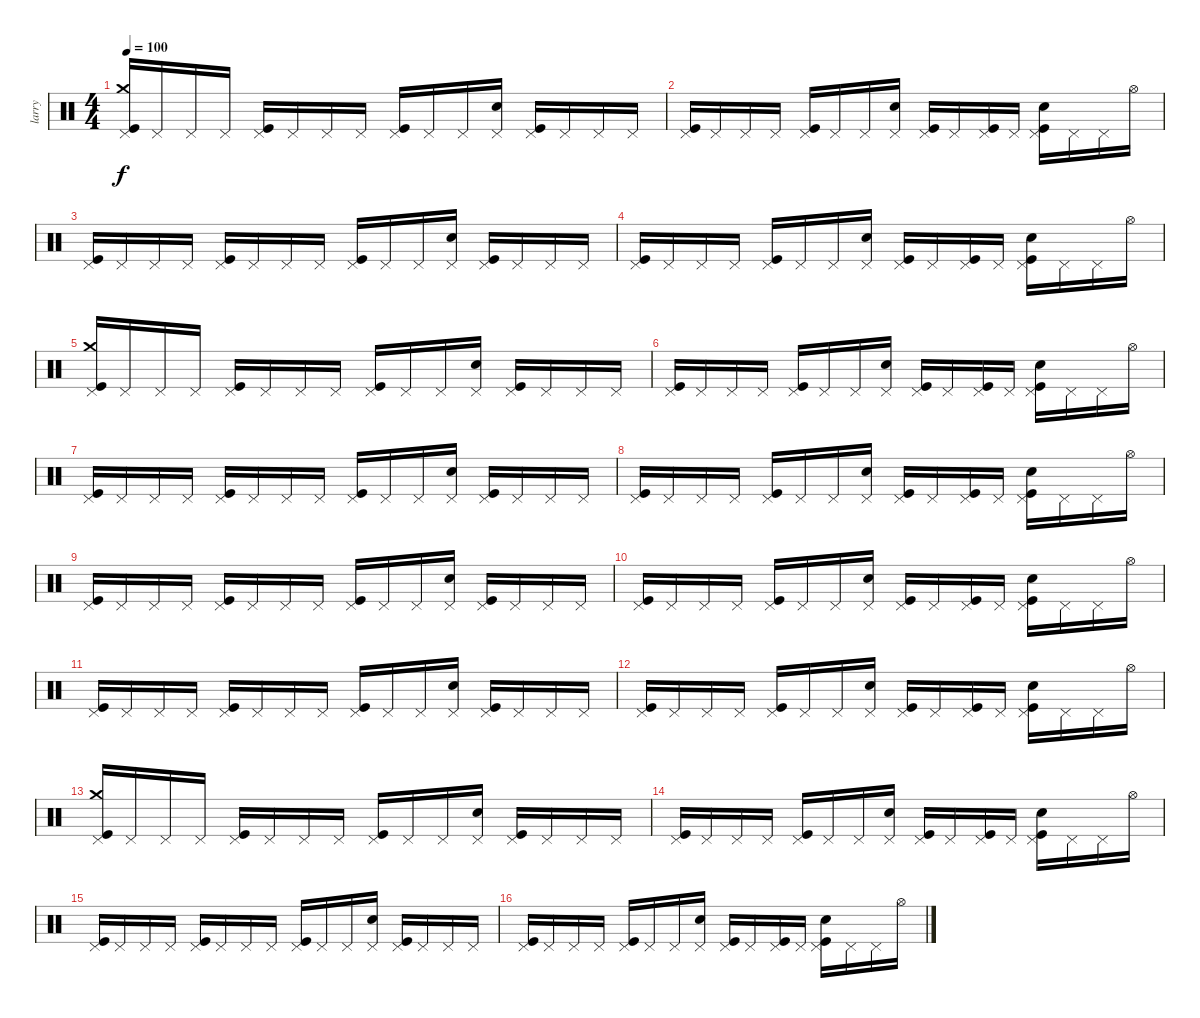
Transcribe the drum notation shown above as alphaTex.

\track ("larry" "larry") {instrument percussion}
\staff {score}
\articulation defaults
\ts (4 4)
\tempo 100
\clef neutral
\ks c
("Pedal Hi-Hat (hit)" "Crash medium (hit)" "Kick (hit)").16{dy f} "Pedal Hi-Hat (hit)".16 "Pedal Hi-Hat (hit)".16 "Pedal Hi-Hat (hit)".16 ("Pedal Hi-Hat (hit)" "Kick (hit)").16 "Pedal Hi-Hat (hit)".16 "Pedal Hi-Hat (hit)".16 "Pedal Hi-Hat (hit)".16 ("Pedal Hi-Hat (hit)" "Kick (hit)").16 "Pedal Hi-Hat (hit)".16 "Pedal Hi-Hat (hit)".16 ("Pedal Hi-Hat (hit)" "Metronome (bell)").16 ("Pedal Hi-Hat (hit)" "Kick (hit)").16 "Pedal Hi-Hat (hit)".16 "Pedal Hi-Hat (hit)".16 "Pedal Hi-Hat (hit)".16 |
("Pedal Hi-Hat (hit)" "Kick (hit)").16 "Pedal Hi-Hat (hit)".16 "Pedal Hi-Hat (hit)".16 "Pedal Hi-Hat (hit)".16 ("Pedal Hi-Hat (hit)" "Kick (hit)").16 "Pedal Hi-Hat (hit)".16 "Pedal Hi-Hat (hit)".16 ("Pedal Hi-Hat (hit)" "Metronome (bell)").16 ("Pedal Hi-Hat (hit)" "Kick (hit)").16 "Pedal Hi-Hat (hit)".16 ("Pedal Hi-Hat (hit)" "Kick (hit)").16 "Pedal Hi-Hat (hit)".16 ("Pedal Hi-Hat (hit)" "Kick (hit)" "Metronome (bell)").16 "Pedal Hi-Hat (hit)".16 "Pedal Hi-Hat (hit)".16 "Hi-Hat (open)".16 |
("Pedal Hi-Hat (hit)" "Kick (hit)").16 "Pedal Hi-Hat (hit)".16 "Pedal Hi-Hat (hit)".16 "Pedal Hi-Hat (hit)".16 ("Pedal Hi-Hat (hit)" "Kick (hit)").16 "Pedal Hi-Hat (hit)".16 "Pedal Hi-Hat (hit)".16 "Pedal Hi-Hat (hit)".16 ("Pedal Hi-Hat (hit)" "Kick (hit)").16 "Pedal Hi-Hat (hit)".16 "Pedal Hi-Hat (hit)".16 ("Pedal Hi-Hat (hit)" "Metronome (bell)").16 ("Pedal Hi-Hat (hit)" "Kick (hit)").16 "Pedal Hi-Hat (hit)".16 "Pedal Hi-Hat (hit)".16 "Pedal Hi-Hat (hit)".16 |
("Pedal Hi-Hat (hit)" "Kick (hit)").16 "Pedal Hi-Hat (hit)".16 "Pedal Hi-Hat (hit)".16 "Pedal Hi-Hat (hit)".16 ("Pedal Hi-Hat (hit)" "Kick (hit)").16 "Pedal Hi-Hat (hit)".16 "Pedal Hi-Hat (hit)".16 ("Pedal Hi-Hat (hit)" "Metronome (bell)").16 ("Pedal Hi-Hat (hit)" "Kick (hit)").16 "Pedal Hi-Hat (hit)".16 ("Pedal Hi-Hat (hit)" "Kick (hit)").16 "Pedal Hi-Hat (hit)".16 ("Pedal Hi-Hat (hit)" "Kick (hit)" "Metronome (bell)").16 "Pedal Hi-Hat (hit)".16 "Pedal Hi-Hat (hit)".16 "Hi-Hat (open)".16 |
("Pedal Hi-Hat (hit)" "Crash medium (hit)" "Kick (hit)").16 "Pedal Hi-Hat (hit)".16 "Pedal Hi-Hat (hit)".16 "Pedal Hi-Hat (hit)".16 ("Pedal Hi-Hat (hit)" "Kick (hit)").16 "Pedal Hi-Hat (hit)".16 "Pedal Hi-Hat (hit)".16 "Pedal Hi-Hat (hit)".16 ("Pedal Hi-Hat (hit)" "Kick (hit)").16 "Pedal Hi-Hat (hit)".16 "Pedal Hi-Hat (hit)".16 ("Pedal Hi-Hat (hit)" "Metronome (bell)").16 ("Pedal Hi-Hat (hit)" "Kick (hit)").16 "Pedal Hi-Hat (hit)".16 "Pedal Hi-Hat (hit)".16 "Pedal Hi-Hat (hit)".16 |
("Pedal Hi-Hat (hit)" "Kick (hit)").16 "Pedal Hi-Hat (hit)".16 "Pedal Hi-Hat (hit)".16 "Pedal Hi-Hat (hit)".16 ("Pedal Hi-Hat (hit)" "Kick (hit)").16 "Pedal Hi-Hat (hit)".16 "Pedal Hi-Hat (hit)".16 ("Pedal Hi-Hat (hit)" "Metronome (bell)").16 ("Pedal Hi-Hat (hit)" "Kick (hit)").16 "Pedal Hi-Hat (hit)".16 ("Pedal Hi-Hat (hit)" "Kick (hit)").16 "Pedal Hi-Hat (hit)".16 ("Pedal Hi-Hat (hit)" "Kick (hit)" "Metronome (bell)").16 "Pedal Hi-Hat (hit)".16 "Pedal Hi-Hat (hit)".16 "Hi-Hat (open)".16 |
("Pedal Hi-Hat (hit)" "Kick (hit)").16 "Pedal Hi-Hat (hit)".16 "Pedal Hi-Hat (hit)".16 "Pedal Hi-Hat (hit)".16 ("Pedal Hi-Hat (hit)" "Kick (hit)").16 "Pedal Hi-Hat (hit)".16 "Pedal Hi-Hat (hit)".16 "Pedal Hi-Hat (hit)".16 ("Pedal Hi-Hat (hit)" "Kick (hit)").16 "Pedal Hi-Hat (hit)".16 "Pedal Hi-Hat (hit)".16 ("Pedal Hi-Hat (hit)" "Metronome (bell)").16 ("Pedal Hi-Hat (hit)" "Kick (hit)").16 "Pedal Hi-Hat (hit)".16 "Pedal Hi-Hat (hit)".16 "Pedal Hi-Hat (hit)".16 |
("Pedal Hi-Hat (hit)" "Kick (hit)").16 "Pedal Hi-Hat (hit)".16 "Pedal Hi-Hat (hit)".16 "Pedal Hi-Hat (hit)".16 ("Pedal Hi-Hat (hit)" "Kick (hit)").16 "Pedal Hi-Hat (hit)".16 "Pedal Hi-Hat (hit)".16 ("Pedal Hi-Hat (hit)" "Metronome (bell)").16 ("Pedal Hi-Hat (hit)" "Kick (hit)").16 "Pedal Hi-Hat (hit)".16 ("Pedal Hi-Hat (hit)" "Kick (hit)").16 "Pedal Hi-Hat (hit)".16 ("Pedal Hi-Hat (hit)" "Kick (hit)" "Metronome (bell)").16 "Pedal Hi-Hat (hit)".16 "Pedal Hi-Hat (hit)".16 "Hi-Hat (open)".16 |
("Pedal Hi-Hat (hit)" "Kick (hit)").16 "Pedal Hi-Hat (hit)".16 "Pedal Hi-Hat (hit)".16 "Pedal Hi-Hat (hit)".16 ("Pedal Hi-Hat (hit)" "Kick (hit)").16 "Pedal Hi-Hat (hit)".16 "Pedal Hi-Hat (hit)".16 "Pedal Hi-Hat (hit)".16 ("Pedal Hi-Hat (hit)" "Kick (hit)").16 "Pedal Hi-Hat (hit)".16 "Pedal Hi-Hat (hit)".16 ("Pedal Hi-Hat (hit)" "Metronome (bell)").16 ("Pedal Hi-Hat (hit)" "Kick (hit)").16 "Pedal Hi-Hat (hit)".16 "Pedal Hi-Hat (hit)".16 "Pedal Hi-Hat (hit)".16 |
("Pedal Hi-Hat (hit)" "Kick (hit)").16 "Pedal Hi-Hat (hit)".16 "Pedal Hi-Hat (hit)".16 "Pedal Hi-Hat (hit)".16 ("Pedal Hi-Hat (hit)" "Kick (hit)").16 "Pedal Hi-Hat (hit)".16 "Pedal Hi-Hat (hit)".16 ("Pedal Hi-Hat (hit)" "Metronome (bell)").16 ("Pedal Hi-Hat (hit)" "Kick (hit)").16 "Pedal Hi-Hat (hit)".16 ("Pedal Hi-Hat (hit)" "Kick (hit)").16 "Pedal Hi-Hat (hit)".16 ("Pedal Hi-Hat (hit)" "Kick (hit)" "Metronome (bell)").16 "Pedal Hi-Hat (hit)".16 "Pedal Hi-Hat (hit)".16 "Hi-Hat (open)".16 |
("Pedal Hi-Hat (hit)" "Kick (hit)").16 "Pedal Hi-Hat (hit)".16 "Pedal Hi-Hat (hit)".16 "Pedal Hi-Hat (hit)".16 ("Pedal Hi-Hat (hit)" "Kick (hit)").16 "Pedal Hi-Hat (hit)".16 "Pedal Hi-Hat (hit)".16 "Pedal Hi-Hat (hit)".16 ("Pedal Hi-Hat (hit)" "Kick (hit)").16 "Pedal Hi-Hat (hit)".16 "Pedal Hi-Hat (hit)".16 ("Pedal Hi-Hat (hit)" "Metronome (bell)").16 ("Pedal Hi-Hat (hit)" "Kick (hit)").16 "Pedal Hi-Hat (hit)".16 "Pedal Hi-Hat (hit)".16 "Pedal Hi-Hat (hit)".16 |
("Pedal Hi-Hat (hit)" "Kick (hit)").16 "Pedal Hi-Hat (hit)".16 "Pedal Hi-Hat (hit)".16 "Pedal Hi-Hat (hit)".16 ("Pedal Hi-Hat (hit)" "Kick (hit)").16 "Pedal Hi-Hat (hit)".16 "Pedal Hi-Hat (hit)".16 ("Pedal Hi-Hat (hit)" "Metronome (bell)").16 ("Pedal Hi-Hat (hit)" "Kick (hit)").16 "Pedal Hi-Hat (hit)".16 ("Pedal Hi-Hat (hit)" "Kick (hit)").16 "Pedal Hi-Hat (hit)".16 ("Pedal Hi-Hat (hit)" "Kick (hit)" "Metronome (bell)").16 "Pedal Hi-Hat (hit)".16 "Pedal Hi-Hat (hit)".16 "Hi-Hat (open)".16 |
("Pedal Hi-Hat (hit)" "Crash medium (hit)" "Kick (hit)").16 "Pedal Hi-Hat (hit)".16 "Pedal Hi-Hat (hit)".16 "Pedal Hi-Hat (hit)".16 ("Pedal Hi-Hat (hit)" "Kick (hit)").16 "Pedal Hi-Hat (hit)".16 "Pedal Hi-Hat (hit)".16 "Pedal Hi-Hat (hit)".16 ("Pedal Hi-Hat (hit)" "Kick (hit)").16 "Pedal Hi-Hat (hit)".16 "Pedal Hi-Hat (hit)".16 ("Pedal Hi-Hat (hit)" "Metronome (bell)").16 ("Pedal Hi-Hat (hit)" "Kick (hit)").16 "Pedal Hi-Hat (hit)".16 "Pedal Hi-Hat (hit)".16 "Pedal Hi-Hat (hit)".16 |
("Pedal Hi-Hat (hit)" "Kick (hit)").16 "Pedal Hi-Hat (hit)".16 "Pedal Hi-Hat (hit)".16 "Pedal Hi-Hat (hit)".16 ("Pedal Hi-Hat (hit)" "Kick (hit)").16 "Pedal Hi-Hat (hit)".16 "Pedal Hi-Hat (hit)".16 ("Pedal Hi-Hat (hit)" "Metronome (bell)").16 ("Pedal Hi-Hat (hit)" "Kick (hit)").16 "Pedal Hi-Hat (hit)".16 ("Pedal Hi-Hat (hit)" "Kick (hit)").16 "Pedal Hi-Hat (hit)".16 ("Pedal Hi-Hat (hit)" "Kick (hit)" "Metronome (bell)").16 "Pedal Hi-Hat (hit)".16 "Pedal Hi-Hat (hit)".16 "Hi-Hat (open)".16 |
("Pedal Hi-Hat (hit)" "Kick (hit)").16 "Pedal Hi-Hat (hit)".16 "Pedal Hi-Hat (hit)".16 "Pedal Hi-Hat (hit)".16 ("Pedal Hi-Hat (hit)" "Kick (hit)").16 "Pedal Hi-Hat (hit)".16 "Pedal Hi-Hat (hit)".16 "Pedal Hi-Hat (hit)".16 ("Pedal Hi-Hat (hit)" "Kick (hit)").16 "Pedal Hi-Hat (hit)".16 "Pedal Hi-Hat (hit)".16 ("Pedal Hi-Hat (hit)" "Metronome (bell)").16 ("Pedal Hi-Hat (hit)" "Kick (hit)").16 "Pedal Hi-Hat (hit)".16 "Pedal Hi-Hat (hit)".16 "Pedal Hi-Hat (hit)".16 |
("Pedal Hi-Hat (hit)" "Kick (hit)").16 "Pedal Hi-Hat (hit)".16 "Pedal Hi-Hat (hit)".16 "Pedal Hi-Hat (hit)".16 ("Pedal Hi-Hat (hit)" "Kick (hit)").16 "Pedal Hi-Hat (hit)".16 "Pedal Hi-Hat (hit)".16 ("Pedal Hi-Hat (hit)" "Metronome (bell)").16 ("Pedal Hi-Hat (hit)" "Kick (hit)").16 "Pedal Hi-Hat (hit)".16 ("Pedal Hi-Hat (hit)" "Kick (hit)").16 "Pedal Hi-Hat (hit)".16 ("Pedal Hi-Hat (hit)" "Kick (hit)" "Metronome (bell)").16 "Pedal Hi-Hat (hit)".16 "Pedal Hi-Hat (hit)".16 "Hi-Hat (open)".16
